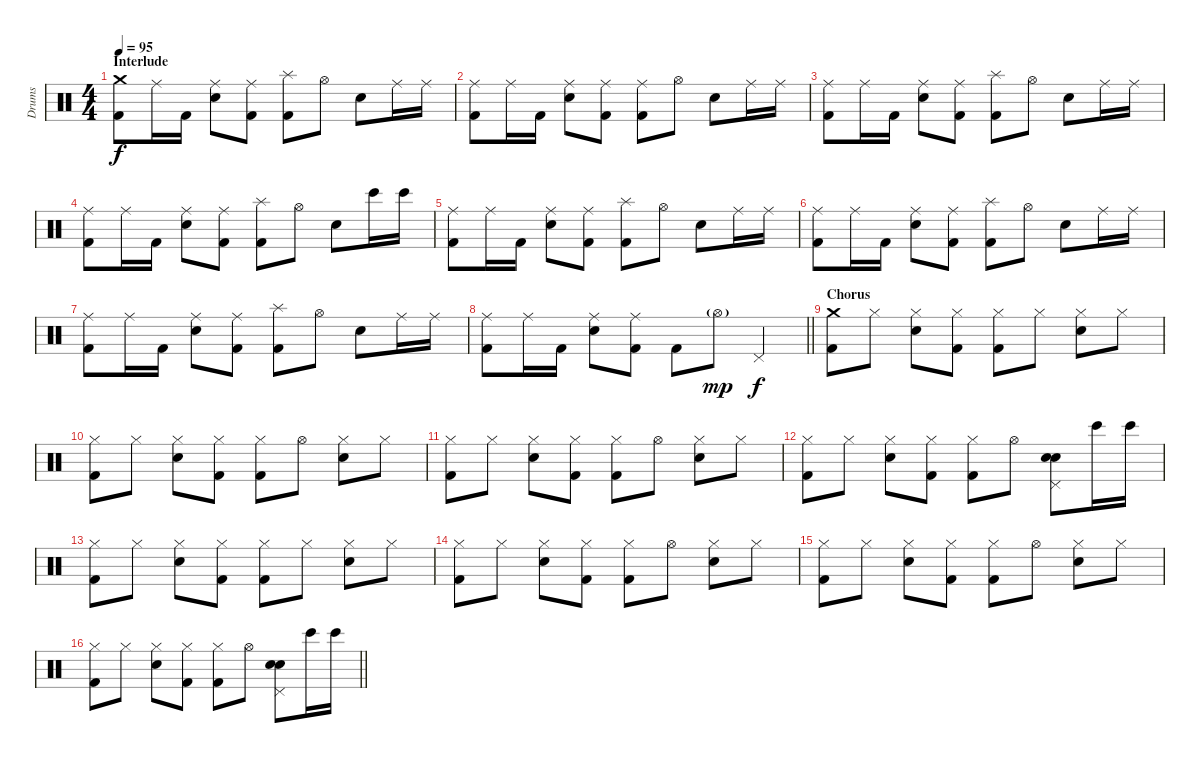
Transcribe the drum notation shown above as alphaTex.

\track ("Drums" "Drums") {instrument percussion}
\staff {score}
\articulation defaults
\ts (4 4)
\section ("" "Interlude")
\tempo 95
\clef neutral
\ks c
("Crash medium (hit)" "Kick (hit) 2").8{dy f} "Ride (middle)".16 "Kick (hit) 2".16 ("Ride (middle)" "Electric Snare (hit)").8 ("Ride (middle)" "Kick (hit) 2").8 ("Splash (hit)" "Kick (hit) 2").8 "Hi-Hat (open)".8 "Hand Clap (hit)".8 "Ride (middle)".16 "Ride (middle)".16 |
("Ride (middle)" "Kick (hit) 2").8 "Ride (middle)".16 "Kick (hit) 2".16 ("Ride (middle)" "Electric Snare (hit)").8 ("Ride (middle)" "Kick (hit) 2").8 ("Ride (middle)" "Kick (hit) 2").8 "Hi-Hat (open)".8 "Hand Clap (hit)".8 "Ride (middle)".16 "Ride (middle)".16 |
("Ride (middle)" "Kick (hit) 2").8 "Ride (middle)".16 "Kick (hit) 2".16 ("Ride (middle)" "Electric Snare (hit)").8 ("Ride (middle)" "Kick (hit) 2").8 ("Splash (hit)" "Kick (hit) 2").8 "Hi-Hat (open)".8 "Hand Clap (hit)".8 "Ride (middle)".16 "Ride (middle)".16 |
("Ride (middle)" "Kick (hit) 2").8 "Ride (middle)".16 "Kick (hit) 2".16 ("Ride (middle)" "Electric Snare (hit)").8 ("Ride (middle)" "Kick (hit) 2").8 ("Splash (hit)" "Kick (hit) 2").8 "Hi-Hat (open)".8 "Hand Clap (hit)".8 "Bongo High (hit)".16 "Bongo High (hit)".16 |
("Ride (middle)" "Kick (hit) 2").8 "Ride (middle)".16 "Kick (hit) 2".16 ("Ride (middle)" "Electric Snare (hit)").8 ("Ride (middle)" "Kick (hit) 2").8 ("Splash (hit)" "Kick (hit) 2").8 "Hi-Hat (open)".8 "Hand Clap (hit)".8 "Ride (middle)".16 "Ride (middle)".16 |
("Ride (middle)" "Kick (hit) 2").8 "Ride (middle)".16 "Kick (hit) 2".16 ("Ride (middle)" "Electric Snare (hit)").8 ("Ride (middle)" "Kick (hit) 2").8 ("Splash (hit)" "Kick (hit) 2").8 "Hi-Hat (open)".8 "Hand Clap (hit)".8 "Ride (middle)".16 "Ride (middle)".16 |
("Ride (middle)" "Kick (hit) 2").8 "Ride (middle)".16 "Kick (hit) 2".16 ("Ride (middle)" "Electric Snare (hit)").8 ("Ride (middle)" "Kick (hit) 2").8 ("Splash (hit)" "Kick (hit) 2").8 "Hi-Hat (open)".8 "Hand Clap (hit)".8 "Ride (middle)".16 "Ride (middle)".16 |
\barLineRight lightlight
("Ride (middle)" "Kick (hit) 2").8 "Ride (middle)".16 "Kick (hit) 2".16 ("Ride (middle)" "Electric Snare (hit)").8 ("Ride (middle)" "Kick (hit) 2").8 "Kick (hit) 2".8 "Hi-Hat (open)"{g}.8{dy mp} "Pedal Hi-Hat (hit)".4{dy f} |
\section ("" "Chorus")
("Crash medium (hit)" "Kick (hit) 2").8 "Hi-Hat (closed)".8 ("Hi-Hat (closed)" "Electric Snare (hit)").8 ("Hi-Hat (closed)" "Kick (hit) 2").8 ("Hi-Hat (closed)" "Kick (hit) 2").8 "Hi-Hat (closed)".8 ("Hi-Hat (closed)" "Electric Snare (hit)").8 "Hi-Hat (closed)".8 |
("Hi-Hat (closed)" "Kick (hit) 2").8 "Hi-Hat (closed)".8 ("Hi-Hat (closed)" "Electric Snare (hit)").8 ("Hi-Hat (closed)" "Kick (hit) 2").8 ("Hi-Hat (closed)" "Kick (hit) 2").8 "Hi-Hat (open)".8 ("Hi-Hat (closed)" "Electric Snare (hit)").8 "Hi-Hat (closed)".8 |
("Hi-Hat (closed)" "Kick (hit) 2").8 "Hi-Hat (closed)".8 ("Hi-Hat (closed)" "Electric Snare (hit)").8 ("Hi-Hat (closed)" "Kick (hit) 2").8 ("Hi-Hat (closed)" "Kick (hit) 2").8 "Hi-Hat (open)".8 ("Hi-Hat (closed)" "Electric Snare (hit)").8 "Hi-Hat (closed)".8 |
("Hi-Hat (closed)" "Kick (hit) 2").8 "Hi-Hat (closed)".8 ("Hi-Hat (closed)" "Electric Snare (hit)").8 ("Hi-Hat (closed)" "Kick (hit) 2").8 ("Hi-Hat (closed)" "Kick (hit) 2").8 "Hi-Hat (open)".8 ("Pedal Hi-Hat (hit)" "Hand Clap (hit)" "Electric Snare (hit)").8 "Bongo High (hit)".16 "Bongo High (hit)".16 |
("Hi-Hat (closed)" "Kick (hit) 2").8 "Hi-Hat (closed)".8 ("Hi-Hat (closed)" "Electric Snare (hit)").8 ("Hi-Hat (closed)" "Kick (hit) 2").8 ("Hi-Hat (closed)" "Kick (hit) 2").8 "Hi-Hat (closed)".8 ("Hi-Hat (closed)" "Electric Snare (hit)").8 "Hi-Hat (closed)".8 |
("Hi-Hat (closed)" "Kick (hit) 2").8 "Hi-Hat (closed)".8 ("Hi-Hat (closed)" "Electric Snare (hit)").8 ("Hi-Hat (closed)" "Kick (hit) 2").8 ("Hi-Hat (closed)" "Kick (hit) 2").8 "Hi-Hat (open)".8 ("Hi-Hat (closed)" "Electric Snare (hit)").8 "Hi-Hat (closed)".8 |
("Hi-Hat (closed)" "Kick (hit) 2").8 "Hi-Hat (closed)".8 ("Hi-Hat (closed)" "Electric Snare (hit)").8 ("Hi-Hat (closed)" "Kick (hit) 2").8 ("Hi-Hat (closed)" "Kick (hit) 2").8 "Hi-Hat (open)".8 ("Hi-Hat (closed)" "Electric Snare (hit)").8 "Hi-Hat (closed)".8 |
\barLineRight lightlight
("Hi-Hat (closed)" "Kick (hit) 2").8 "Hi-Hat (closed)".8 ("Hi-Hat (closed)" "Electric Snare (hit)").8 ("Hi-Hat (closed)" "Kick (hit) 2").8 ("Hi-Hat (closed)" "Kick (hit) 2").8 "Hi-Hat (open)".8 ("Pedal Hi-Hat (hit)" "Hand Clap (hit)" "Electric Snare (hit)").8 "Bongo High (hit)".16 "Bongo High (hit)".16
